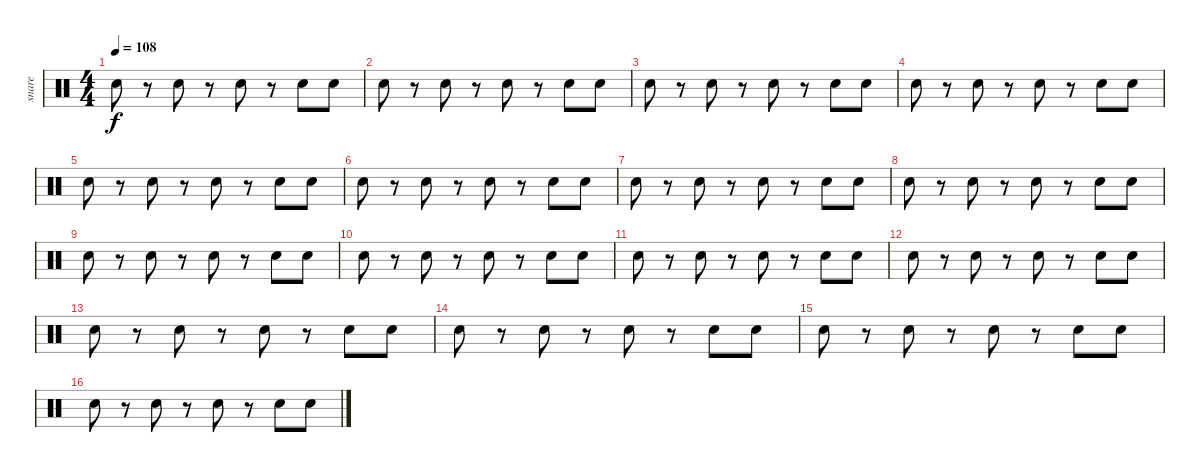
\track ("snare               " "snare     ") {instrument percussion}
\staff {score}
\articulation defaults
\ts (4 4)
\tempo 108
\clef neutral
\ks c "Snare (hit) 2".8{dy f}
r.8 "Snare (hit) 2".8 r.8 "Snare (hit) 2".8 r.8 "Snare (hit) 2".8 "Snare (hit) 2".8 |
"Snare (hit) 2".8 r.8 "Snare (hit) 2".8 r.8 "Snare (hit) 2".8 r.8 "Snare (hit) 2".8 "Snare (hit) 2".8 |
"Snare (hit) 2".8 r.8 "Snare (hit) 2".8 r.8 "Snare (hit) 2".8 r.8 "Snare (hit) 2".8 "Snare (hit) 2".8 |
"Snare (hit) 2".8 r.8 "Snare (hit) 2".8 r.8 "Snare (hit) 2".8 r.8 "Snare (hit) 2".8 "Snare (hit) 2".8 |
"Snare (hit) 2".8 r.8 "Snare (hit) 2".8 r.8 "Snare (hit) 2".8 r.8 "Snare (hit) 2".8 "Snare (hit) 2".8 |
"Snare (hit) 2".8 r.8 "Snare (hit) 2".8 r.8 "Snare (hit) 2".8 r.8 "Snare (hit) 2".8 "Snare (hit) 2".8 |
"Snare (hit) 2".8 r.8 "Snare (hit) 2".8 r.8 "Snare (hit) 2".8 r.8 "Snare (hit) 2".8 "Snare (hit) 2".8 |
"Snare (hit) 2".8 r.8 "Snare (hit) 2".8 r.8 "Snare (hit) 2".8 r.8 "Snare (hit) 2".8 "Snare (hit) 2".8 |
"Snare (hit) 2".8 r.8 "Snare (hit) 2".8 r.8 "Snare (hit) 2".8 r.8 "Snare (hit) 2".8 "Snare (hit) 2".8 |
"Snare (hit) 2".8 r.8 "Snare (hit) 2".8 r.8 "Snare (hit) 2".8 r.8 "Snare (hit) 2".8 "Snare (hit) 2".8 |
"Snare (hit) 2".8 r.8 "Snare (hit) 2".8 r.8 "Snare (hit) 2".8 r.8 "Snare (hit) 2".8 "Snare (hit) 2".8 |
"Snare (hit) 2".8 r.8 "Snare (hit) 2".8 r.8 "Snare (hit) 2".8 r.8 "Snare (hit) 2".8 "Snare (hit) 2".8 |
"Snare (hit) 2".8 r.8 "Snare (hit) 2".8 r.8 "Snare (hit) 2".8 r.8 "Snare (hit) 2".8 "Snare (hit) 2".8 |
"Snare (hit) 2".8 r.8 "Snare (hit) 2".8 r.8 "Snare (hit) 2".8 r.8 "Snare (hit) 2".8 "Snare (hit) 2".8 |
"Snare (hit) 2".8 r.8 "Snare (hit) 2".8 r.8 "Snare (hit) 2".8 r.8 "Snare (hit) 2".8 "Snare (hit) 2".8 |
"Snare (hit) 2".8{volume 16} r.8 "Snare (hit) 2".8{volume 16} r.8 "Snare (hit) 2".8{volume 15} r.8 "Snare (hit) 2".8{volume 15} "Snare (hit) 2".8{volume 15}
